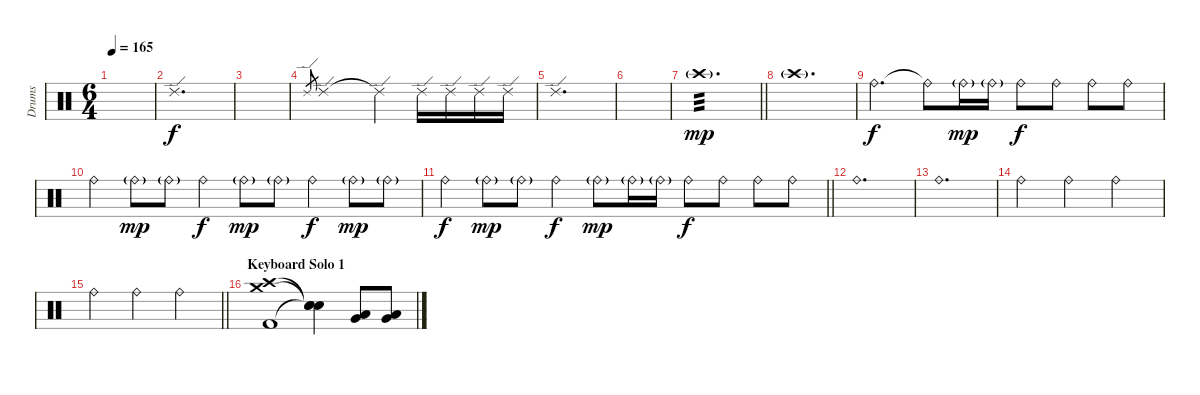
\track ("Drums" "Drums") {instrument percussion}
\staff {score}
\articulation defaults
\ts (6 4)
\tempo 165
\clef neutral
\ks c
|
"Ride (edge) 2".1{d} |
|
"Ride (edge) 2".8{gr} "Ride (edge) 2".1 "Ride (edge) 2"{t}.4 "Ride (edge) 2".16 "Ride (edge) 2".16 "Ride (edge) 2".16 "Ride (edge) 2".16 |
"Ride (edge) 2".1{d} |
|
\barLineRight lightlight "Crash high (hit)"{g}.1{d tp 3 dy mp}
|
"Crash high (hit)"{g}.1{d} |
"Ride (bell)".2{d dy f} "Ride (bell)"{t}.8 "Ride (bell)"{g}.16{dy mp} "Ride (bell)"{g}.16 "Ride (bell)".8{dy f} "Ride (bell)".8 "Ride (bell)".8 "Ride (bell)".8 |
"Ride (bell)".4 "Ride (bell)"{g}.8{dy mp} "Ride (bell)"{g}.8 "Ride (bell)".4{dy f} "Ride (bell)"{g}.8{dy mp} "Ride (bell)"{g}.8 "Ride (bell)".4{dy f} "Ride (bell)"{g}.8{dy mp} "Ride (bell)"{g}.8 |
\barLineRight lightlight "Ride (bell)".4{dy f} "Ride (bell)"{g}.8{dy mp} "Ride (bell)"{g}.8 "Ride (bell)".4{dy f} "Ride (bell)"{g}.8{dy mp} "Ride (bell)"{g}.16 "Ride (bell)"{g}.16 "Ride (bell)".8{dy f} "Ride (bell)".8 "Ride (bell)".8 "Ride (bell)".8
|
"Ride (bell)".1{d} |
"Ride (bell)".1{d} |
"Ride (bell)".2 "Ride (bell)".2 "Ride (bell)".2 |
\barLineRight lightlight "Ride (bell)".2 "Ride (bell)".2 "Ride (bell)".2
|
\section ("" "Keyboard Solo 1")
("Crash medium (hit)" "Crash high (hit)" "Kick (hit) 2").1 ("Snare (hit)"{t} "Snare (hit)"{t} "Snare (hit)"{t}).4 ("Low Tom (hit)" "Very Low Tom (hit)").8 ("Low Tom (hit)" "Very Low Tom (hit)").8
